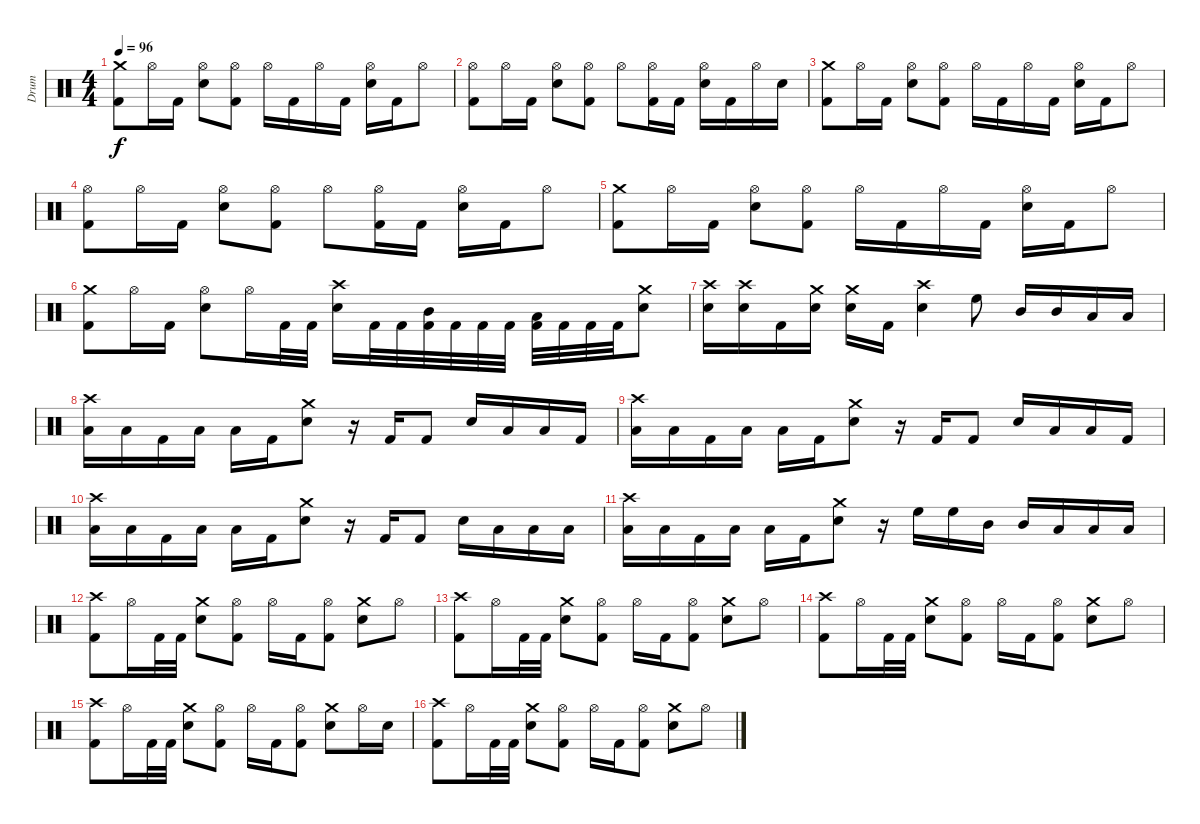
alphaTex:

\track ("Drum" "Drum") {instrument percussion}
\staff {score}
\articulation defaults
\ts (4 4)
\tempo 96
\clef neutral
\ks c
("Crash medium (hit)" "Kick (hit) 2").8{dy f} "Hi-Hat (open)".16 "Kick (hit) 2".16 ("Hi-Hat (open)" "Snare (hit) 2").8 ("Hi-Hat (open)" "Kick (hit) 2").8 "Hi-Hat (open)".16 "Kick (hit) 2".16 "Hi-Hat (open)".16 "Kick (hit) 2".16 ("Hi-Hat (open)" "Snare (hit) 2").16 "Kick (hit) 2".16 "Hi-Hat (open)".8 |
("Hi-Hat (open)" "Kick (hit) 2").8 "Hi-Hat (open)".16 "Kick (hit) 2".16 ("Hi-Hat (open)" "Snare (hit) 2").8 ("Hi-Hat (open)" "Kick (hit) 2").8 "Hi-Hat (open)".8 ("Hi-Hat (open)" "Kick (hit) 2").16 "Kick (hit) 2".16 ("Hi-Hat (open)" "Snare (hit) 2").16 "Kick (hit) 2".16 "Hi-Hat (open)".16 "Snare (hit) 2".16 |
("Crash medium (hit)" "Kick (hit) 2").8 "Hi-Hat (open)".16 "Kick (hit) 2".16 ("Hi-Hat (open)" "Snare (hit) 2").8 ("Hi-Hat (open)" "Kick (hit) 2").8 "Hi-Hat (open)".16 "Kick (hit) 2".16 "Hi-Hat (open)".16 "Kick (hit) 2".16 ("Hi-Hat (open)" "Snare (hit) 2").16 "Kick (hit) 2".16 "Hi-Hat (open)".8 |
("Hi-Hat (open)" "Kick (hit) 2").8 "Hi-Hat (open)".16 "Kick (hit) 2".16 ("Hi-Hat (open)" "Snare (hit) 2").8 ("Hi-Hat (open)" "Kick (hit) 2").8 "Hi-Hat (open)".8 ("Hi-Hat (open)" "Kick (hit) 2").16 "Kick (hit) 2".16 ("Hi-Hat (open)" "Snare (hit) 2").16 "Kick (hit) 2".16 "Hi-Hat (open)".8 |
("Crash medium (hit)" "Kick (hit) 2").8 "Hi-Hat (open)".16 "Kick (hit) 2".16 ("Hi-Hat (open)" "Snare (hit) 2").8 ("Hi-Hat (open)" "Kick (hit) 2").8 "Hi-Hat (open)".16 "Kick (hit) 2".16 "Hi-Hat (open)".16 "Kick (hit) 2".16 ("Hi-Hat (open)" "Snare (hit) 2").16 "Kick (hit) 2".16 "Hi-Hat (open)".8 |
("Crash medium (hit)" "Kick (hit) 2").8 "Hi-Hat (open)".16 "Kick (hit) 2".16 ("Hi-Hat (open)" "Snare (hit) 2").8 "Hi-Hat (open)".16 "Kick (hit) 2".32 "Kick (hit) 2".32 ("Crash high (hit)" "Snare (hit) 2").16 "Kick (hit) 2".32 "Kick (hit) 2".32 ("Mid Tom (hit)" "Kick (hit) 2").32 "Kick (hit) 2".32 "Kick (hit) 2".32 "Kick (hit) 2".32 ("Low Tom (hit)" "Kick (hit) 2").32 "Kick (hit) 2".32 "Kick (hit) 2".32 "Kick (hit) 2".32 ("Crash medium (hit)" "Snare (hit) 2").8 |
("Crash high (hit)" "Snare (hit) 2").16 ("Crash high (hit)" "Snare (hit) 2").16 "Kick (hit) 2".16 ("Crash medium (hit)" "Snare (hit) 2").16 ("Crash medium (hit)" "Snare (hit) 2").16 "Kick (hit) 2".16 ("Crash high (hit)" "Snare (hit) 2").4 "High Floor Tom (hit)".8 "Mid Tom (hit)".16 "Mid Tom (hit)".16 "Low Tom (hit)".16 "Low Tom (hit)".16 |
("Crash high (hit)" "Low Floor Tom (hit)").16 "Low Floor Tom (hit)".16 "Kick (hit) 2".16 "Low Tom (hit)".16 "Low Floor Tom (hit)".16 "Kick (hit) 2".16 ("Crash medium (hit)" "Snare (hit) 2").8 r.16 "Kick (hit) 2".16 "Kick (hit) 2".8 "Snare (hit) 2".16 "Low Tom (hit)".16 "Low Floor Tom (hit)".16 "Kick (hit) 2".16 |
("Crash high (hit)" "Low Tom (hit)").16 "Low Floor Tom (hit)".16 "Kick (hit) 2".16 "Low Tom (hit)".16 "Low Floor Tom (hit)".16 "Kick (hit) 2".16 ("Crash medium (hit)" "Snare (hit) 2").8 r.16 "Kick (hit) 2".16 "Kick (hit) 2".8 "Snare (hit) 2".16 "Low Tom (hit)".16 "Low Floor Tom (hit)".16 "Kick (hit) 2".16 |
("Crash high (hit)" "Low Tom (hit)").16 "Low Floor Tom (hit)".16 "Kick (hit) 2".16 "Low Tom (hit)".16 "Low Floor Tom (hit)".16 "Kick (hit) 2".16 ("Crash medium (hit)" "Snare (hit) 2").8 r.16 "Kick (hit) 2".16 "Kick (hit) 2".8 "Snare (hit) 2".16 "Low Tom (hit)".16 "Low Floor Tom (hit)".16 "Low Floor Tom (hit)".16 |
("Crash high (hit)" "Low Tom (hit)").16 "Low Floor Tom (hit)".16 "Kick (hit) 2".16 "Low Tom (hit)".16 "Low Floor Tom (hit)".16 "Kick (hit) 2".16 ("Crash medium (hit)" "Snare (hit) 2").8 r.16 "High Floor Tom (hit)".16 "High Floor Tom (hit)".16 "Mid Tom (hit)".16 "Mid Tom (hit)".16 "Low Tom (hit)".16 "Low Tom (hit)".16 "Low Floor Tom (hit)".16 |
("Crash high (hit)" "Kick (hit) 2").8 "Hi-Hat (open)".16 "Kick (hit) 2".32 "Kick (hit) 2".32 ("Crash medium (hit)" "Snare (hit) 2").8 ("Hi-Hat (open)" "Kick (hit) 2").8 "Hi-Hat (open)".16 "Kick (hit) 2".16 ("Hi-Hat (open)" "Kick (hit) 2").8 ("Crash medium (hit)" "Snare (hit) 2").8 "Hi-Hat (open)".8 |
("Crash high (hit)" "Kick (hit) 2").8 "Hi-Hat (open)".16 "Kick (hit) 2".32 "Kick (hit) 2".32 ("Crash medium (hit)" "Snare (hit) 2").8 ("Hi-Hat (open)" "Kick (hit) 2").8 "Hi-Hat (open)".16 "Kick (hit) 2".16 ("Hi-Hat (open)" "Kick (hit) 2").8 ("Crash medium (hit)" "Snare (hit) 2").8 "Hi-Hat (open)".8 |
("Crash high (hit)" "Kick (hit) 2").8 "Hi-Hat (open)".16 "Kick (hit) 2".32 "Kick (hit) 2".32 ("Crash medium (hit)" "Snare (hit) 2").8 ("Hi-Hat (open)" "Kick (hit) 2").8 "Hi-Hat (open)".16 "Kick (hit) 2".16 ("Hi-Hat (open)" "Kick (hit) 2").8 ("Crash medium (hit)" "Snare (hit) 2").8 "Hi-Hat (open)".8 |
("Crash high (hit)" "Kick (hit) 2").8 "Hi-Hat (open)".16 "Kick (hit) 2".32 "Kick (hit) 2".32 ("Crash medium (hit)" "Snare (hit) 2").8 ("Hi-Hat (open)" "Kick (hit) 2").8 "Hi-Hat (open)".16 "Kick (hit) 2".16 ("Hi-Hat (open)" "Kick (hit) 2").8 ("Crash medium (hit)" "Snare (hit) 2").8 "Hi-Hat (open)".16 "Snare (hit) 2".16 |
("Crash high (hit)" "Kick (hit) 2").8 "Hi-Hat (open)".16 "Kick (hit) 2".32 "Kick (hit) 2".32 ("Crash medium (hit)" "Snare (hit) 2").8 ("Hi-Hat (open)" "Kick (hit) 2").8 "Hi-Hat (open)".16 "Kick (hit) 2".16 ("Hi-Hat (open)" "Kick (hit) 2").8 ("Crash medium (hit)" "Snare (hit) 2").8 "Hi-Hat (open)".8
